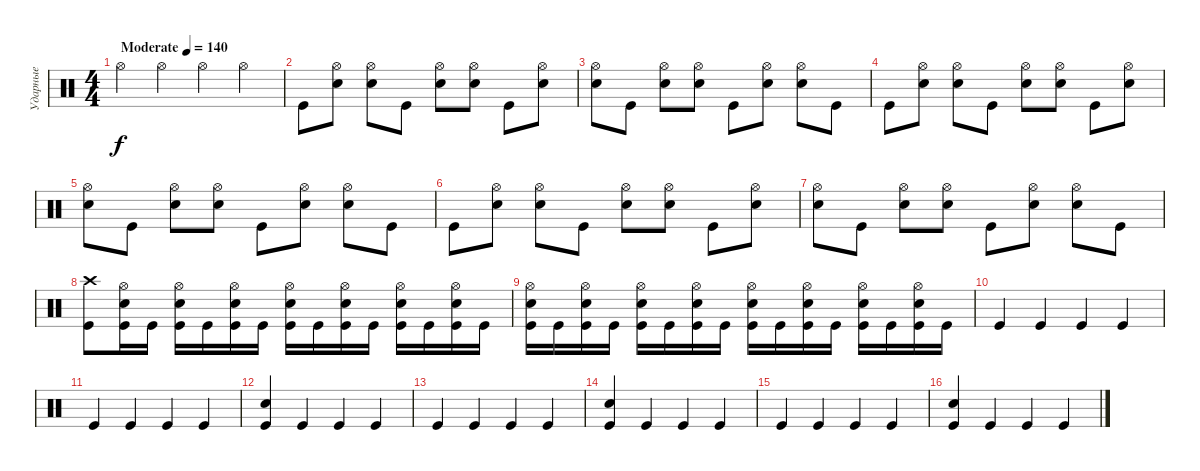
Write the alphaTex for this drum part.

\track ("Ударные" "Ударные") {instrument percussion}
\staff {score}
\articulation defaults
\ts (4 4)
\tempo (140 "Moderate")
\clef neutral
\ks c "Hi-Hat (open)".4{dy f} "Hi-Hat (open)".4 "Hi-Hat (open)".4 "Hi-Hat (open)".4
|
"Kick (hit)".8 ("Snare (hit) 2" "Hi-Hat (open)").8 ("Snare (hit) 2" "Hi-Hat (open)").8 "Kick (hit)".8 ("Snare (hit) 2" "Hi-Hat (open)").8 ("Snare (hit) 2" "Hi-Hat (open)").8 "Kick (hit)".8 ("Snare (hit) 2" "Hi-Hat (open)").8 |
("Snare (hit) 2" "Hi-Hat (open)").8 "Kick (hit)".8 ("Snare (hit) 2" "Hi-Hat (open)").8 ("Snare (hit) 2" "Hi-Hat (open)").8 "Kick (hit)".8 ("Snare (hit) 2" "Hi-Hat (open)").8 ("Snare (hit) 2" "Hi-Hat (open)").8 "Kick (hit)".8 |
"Kick (hit)".8 ("Snare (hit) 2" "Hi-Hat (open)").8 ("Snare (hit) 2" "Hi-Hat (open)").8 "Kick (hit)".8 ("Snare (hit) 2" "Hi-Hat (open)").8 ("Snare (hit) 2" "Hi-Hat (open)").8 "Kick (hit)".8 ("Snare (hit) 2" "Hi-Hat (open)").8 |
("Snare (hit) 2" "Hi-Hat (open)").8 "Kick (hit)".8 ("Snare (hit) 2" "Hi-Hat (open)").8 ("Snare (hit) 2" "Hi-Hat (open)").8 "Kick (hit)".8 ("Snare (hit) 2" "Hi-Hat (open)").8 ("Snare (hit) 2" "Hi-Hat (open)").8 "Kick (hit)".8 |
"Kick (hit)".8 ("Snare (hit) 2" "Hi-Hat (open)").8 ("Snare (hit) 2" "Hi-Hat (open)").8 "Kick (hit)".8 ("Snare (hit) 2" "Hi-Hat (open)").8 ("Snare (hit) 2" "Hi-Hat (open)").8 "Kick (hit)".8 ("Snare (hit) 2" "Hi-Hat (open)").8 |
("Snare (hit) 2" "Hi-Hat (open)").8 "Kick (hit)".8 ("Snare (hit) 2" "Hi-Hat (open)").8 ("Snare (hit) 2" "Hi-Hat (open)").8 "Kick (hit)".8 ("Snare (hit) 2" "Hi-Hat (open)").8 ("Snare (hit) 2" "Hi-Hat (open)").8 "Kick (hit)".8 |
("Kick (hit)" "Crash high (hit)").8 ("Snare (hit) 2" "Kick (hit)" "Hi-Hat (open)").16 "Kick (hit)".16 ("Snare (hit) 2" "Kick (hit)" "Hi-Hat (open)").16 "Kick (hit)".16 ("Kick (hit)" "Snare (hit) 2" "Hi-Hat (open)").16 "Kick (hit)".16 ("Snare (hit) 2" "Kick (hit)" "Hi-Hat (open)").16 "Kick (hit)".16 ("Snare (hit) 2" "Kick (hit)" "Hi-Hat (open)").16 "Kick (hit)".16 ("Kick (hit)" "Snare (hit) 2" "Hi-Hat (open)").16 "Kick (hit)".16 ("Snare (hit) 2" "Kick (hit)" "Hi-Hat (open)").16 "Kick (hit)".16 |
("Kick (hit)" "Snare (hit) 2" "Hi-Hat (open)").16 "Kick (hit)".16 ("Snare (hit) 2" "Kick (hit)" "Hi-Hat (open)").16 "Kick (hit)".16 ("Snare (hit) 2" "Kick (hit)" "Hi-Hat (open)").16 "Kick (hit)".16 ("Kick (hit)" "Snare (hit) 2" "Hi-Hat (open)").16 "Kick (hit)".16 ("Snare (hit) 2" "Kick (hit)" "Hi-Hat (open)").16 "Kick (hit)".16 ("Snare (hit) 2" "Kick (hit)" "Hi-Hat (open)").16 "Kick (hit)".16 ("Kick (hit)" "Snare (hit) 2" "Hi-Hat (open)").16 "Kick (hit)".16 ("Snare (hit) 2" "Kick (hit)" "Hi-Hat (open)").16 "Kick (hit)".16 |
"Kick (hit)".4 "Kick (hit)".4 "Kick (hit)".4 "Kick (hit)".4 |
"Kick (hit)".4 "Kick (hit)".4 "Kick (hit)".4 "Kick (hit)".4 |
("Kick (hit)" "Snare (hit) 2").4 "Kick (hit)".4 "Kick (hit)".4 "Kick (hit)".4 |
"Kick (hit)".4 "Kick (hit)".4 "Kick (hit)".4 "Kick (hit)".4 |
("Kick (hit)" "Snare (hit) 2").4 "Kick (hit)".4 "Kick (hit)".4 "Kick (hit)".4 |
"Kick (hit)".4 "Kick (hit)".4 "Kick (hit)".4 "Kick (hit)".4 |
("Kick (hit)" "Snare (hit) 2").4 "Kick (hit)".4 "Kick (hit)".4 "Kick (hit)".4
